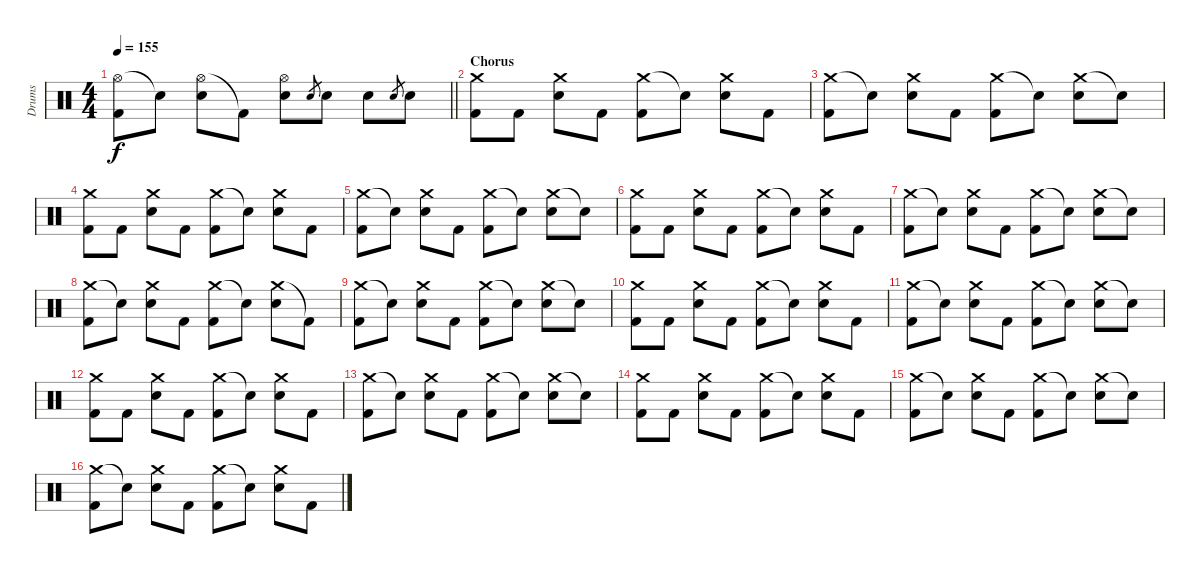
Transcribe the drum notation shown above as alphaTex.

\track ("Drums" "Drums") {instrument percussion}
\staff {score}
\articulation defaults
\ts (4 4)
\tempo 155
\clef neutral
\barLineRight lightlight
\ks c
("Hi-Hat (open)" "Kick (hit) 2").8{dy f} "Snare (hit)"{t}.8 ("Hi-Hat (open)" "Electric Snare (hit)").8 "Kick (hit) 2"{t}.8 ("Hi-Hat (open)" "Electric Snare (hit)").8 "Electric Snare (hit)".8{gr} "Electric Snare (hit)".8 "Electric Snare (hit)".8 "Electric Snare (hit)".8{gr} "Electric Snare (hit)".8 |
\section ("" "Chorus")
("Crash medium (hit)" "Kick (hit) 2").8 "Kick (hit) 2".8 ("Crash medium (hit)" "Electric Snare (hit)").8 "Kick (hit) 2".8 ("Crash medium (hit)" "Kick (hit) 2").8 "Snare (hit)"{t}.8 ("Crash medium (hit)" "Electric Snare (hit)").8 "Kick (hit) 2".8 |
("Crash medium (hit)" "Kick (hit) 2").8 "Snare (hit)"{t}.8 ("Crash medium (hit)" "Electric Snare (hit)").8 "Kick (hit) 2".8 ("Crash medium (hit)" "Kick (hit) 2").8 "Snare (hit)"{t}.8 ("Crash medium (hit)" "Electric Snare (hit)").8 "Snare (hit)"{t}.8 |
("Crash medium (hit)" "Kick (hit) 2").8 "Kick (hit) 2".8 ("Crash medium (hit)" "Electric Snare (hit)").8 "Kick (hit) 2".8 ("Crash medium (hit)" "Kick (hit) 2").8 "Snare (hit)"{t}.8 ("Crash medium (hit)" "Electric Snare (hit)").8 "Kick (hit) 2".8 |
("Crash medium (hit)" "Kick (hit) 2").8 "Snare (hit)"{t}.8 ("Crash medium (hit)" "Electric Snare (hit)").8 "Kick (hit) 2".8 ("Crash medium (hit)" "Kick (hit) 2").8 "Snare (hit)"{t}.8 ("Crash medium (hit)" "Electric Snare (hit)").8 "Snare (hit)"{t}.8 |
("Crash medium (hit)" "Kick (hit) 2").8 "Kick (hit) 2".8 ("Crash medium (hit)" "Electric Snare (hit)").8 "Kick (hit) 2".8 ("Crash medium (hit)" "Kick (hit) 2").8 "Snare (hit)"{t}.8 ("Crash medium (hit)" "Electric Snare (hit)").8 "Kick (hit) 2".8 |
("Crash medium (hit)" "Kick (hit) 2").8 "Snare (hit)"{t}.8 ("Crash medium (hit)" "Electric Snare (hit)").8 "Kick (hit) 2".8 ("Crash medium (hit)" "Kick (hit) 2").8 "Snare (hit)"{t}.8 ("Crash medium (hit)" "Electric Snare (hit)").8 "Snare (hit)"{t}.8 |
("Crash medium (hit)" "Kick (hit) 2").8 "Snare (hit)"{t}.8 ("Crash medium (hit)" "Electric Snare (hit)").8 "Kick (hit) 2".8 ("Crash medium (hit)" "Kick (hit) 2").8 "Snare (hit)"{t}.8 ("Crash medium (hit)" "Electric Snare (hit)").8 "Kick (hit) 2"{t}.8 |
("Crash medium (hit)" "Kick (hit) 2").8 "Electric Snare (hit)"{t}.8 ("Crash medium (hit)" "Electric Snare (hit)").8 "Kick (hit) 2".8 ("Crash medium (hit)" "Kick (hit) 2").8 "Electric Snare (hit)"{t}.8 ("Crash medium (hit)" "Electric Snare (hit)").8 "Snare (hit)"{t}.8 |
("Crash medium (hit)" "Kick (hit) 2").8 "Kick (hit) 2".8 ("Crash medium (hit)" "Electric Snare (hit)").8 "Kick (hit) 2".8 ("Crash medium (hit)" "Kick (hit) 2").8 "Snare (hit)"{t}.8 ("Crash medium (hit)" "Electric Snare (hit)").8 "Kick (hit) 2".8 |
("Crash medium (hit)" "Kick (hit) 2").8 "Snare (hit)"{t}.8 ("Crash medium (hit)" "Electric Snare (hit)").8 "Kick (hit) 2".8 ("Crash medium (hit)" "Kick (hit) 2").8 "Snare (hit)"{t}.8 ("Crash medium (hit)" "Electric Snare (hit)").8 "Snare (hit)"{t}.8 |
("Crash medium (hit)" "Kick (hit) 2").8 "Kick (hit) 2".8 ("Crash medium (hit)" "Electric Snare (hit)").8 "Kick (hit) 2".8 ("Crash medium (hit)" "Kick (hit) 2").8 "Snare (hit)"{t}.8 ("Crash medium (hit)" "Electric Snare (hit)").8 "Kick (hit) 2".8 |
("Crash medium (hit)" "Kick (hit) 2").8 "Snare (hit)"{t}.8 ("Crash medium (hit)" "Electric Snare (hit)").8 "Kick (hit) 2".8 ("Crash medium (hit)" "Kick (hit) 2").8 "Snare (hit)"{t}.8 ("Crash medium (hit)" "Electric Snare (hit)").8 "Snare (hit)"{t}.8 |
("Crash medium (hit)" "Kick (hit) 2").8 "Kick (hit) 2".8 ("Crash medium (hit)" "Electric Snare (hit)").8 "Kick (hit) 2".8 ("Crash medium (hit)" "Kick (hit) 2").8 "Snare (hit)"{t}.8 ("Crash medium (hit)" "Electric Snare (hit)").8 "Kick (hit) 2".8 |
("Crash medium (hit)" "Kick (hit) 2").8 "Snare (hit)"{t}.8 ("Crash medium (hit)" "Electric Snare (hit)").8 "Kick (hit) 2".8 ("Crash medium (hit)" "Kick (hit) 2").8 "Snare (hit)"{t}.8 ("Crash medium (hit)" "Electric Snare (hit)").8 "Snare (hit)"{t}.8 |
("Crash medium (hit)" "Kick (hit) 2").8 "Snare (hit)"{t}.8 ("Crash medium (hit)" "Electric Snare (hit)").8 "Kick (hit) 2".8 ("Crash medium (hit)" "Kick (hit) 2").8 "Snare (hit)"{t}.8 ("Crash medium (hit)" "Electric Snare (hit)").8 "Kick (hit) 2".8
